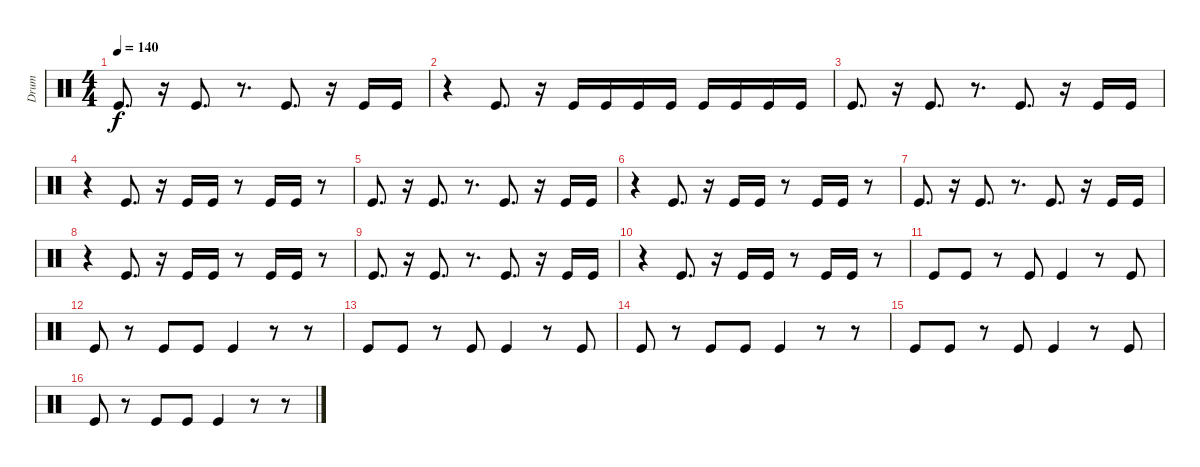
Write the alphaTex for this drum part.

\track ("Drum" "Drum") {instrument percussion}
\staff {score}
\articulation defaults
\ts (4 4)
\tempo 140
\clef neutral
\ks c "Kick (hit)".8{d dy f}
r.16 "Kick (hit)".8{d} r.8{d} "Kick (hit)".8{d} r.16 "Kick (hit)".16 "Kick (hit)".16 |
r.4 "Kick (hit)".8{d} r.16 "Kick (hit)".16 "Kick (hit)".16 "Kick (hit)".16 "Kick (hit)".16 "Kick (hit)".16 "Kick (hit)".16 "Kick (hit)".16 "Kick (hit)".16 |
"Kick (hit)".8{d} r.16 "Kick (hit)".8{d} r.8{d} "Kick (hit)".8{d} r.16 "Kick (hit)".16 "Kick (hit)".16 |
r.4 "Kick (hit)".8{d} r.16 "Kick (hit)".16 "Kick (hit)".16 r.8 "Kick (hit)".16 "Kick (hit)".16 r.8 |
"Kick (hit)".8{d} r.16 "Kick (hit)".8{d} r.8{d} "Kick (hit)".8{d} r.16 "Kick (hit)".16 "Kick (hit)".16 |
r.4 "Kick (hit)".8{d} r.16 "Kick (hit)".16 "Kick (hit)".16 r.8 "Kick (hit)".16 "Kick (hit)".16 r.8 |
"Kick (hit)".8{d} r.16 "Kick (hit)".8{d} r.8{d} "Kick (hit)".8{d} r.16 "Kick (hit)".16 "Kick (hit)".16 |
r.4 "Kick (hit)".8{d} r.16 "Kick (hit)".16 "Kick (hit)".16 r.8 "Kick (hit)".16 "Kick (hit)".16 r.8 |
"Kick (hit)".8{d} r.16 "Kick (hit)".8{d} r.8{d} "Kick (hit)".8{d} r.16 "Kick (hit)".16 "Kick (hit)".16 |
r.4 "Kick (hit)".8{d} r.16 "Kick (hit)".16 "Kick (hit)".16 r.8 "Kick (hit)".16 "Kick (hit)".16 r.8 |
"Kick (hit)".8 "Kick (hit)".8 r.8 "Kick (hit)".8 "Kick (hit)".4 r.8 "Kick (hit)".8 |
"Kick (hit)".8 r.8 "Kick (hit)".8 "Kick (hit)".8 "Kick (hit)".4 r.8 r.8 |
"Kick (hit)".8 "Kick (hit)".8 r.8 "Kick (hit)".8 "Kick (hit)".4 r.8 "Kick (hit)".8 |
"Kick (hit)".8 r.8 "Kick (hit)".8 "Kick (hit)".8 "Kick (hit)".4 r.8 r.8 |
"Kick (hit)".8 "Kick (hit)".8 r.8 "Kick (hit)".8 "Kick (hit)".4 r.8 "Kick (hit)".8 |
"Kick (hit)".8 r.8 "Kick (hit)".8 "Kick (hit)".8 "Kick (hit)".4 r.8 r.8
